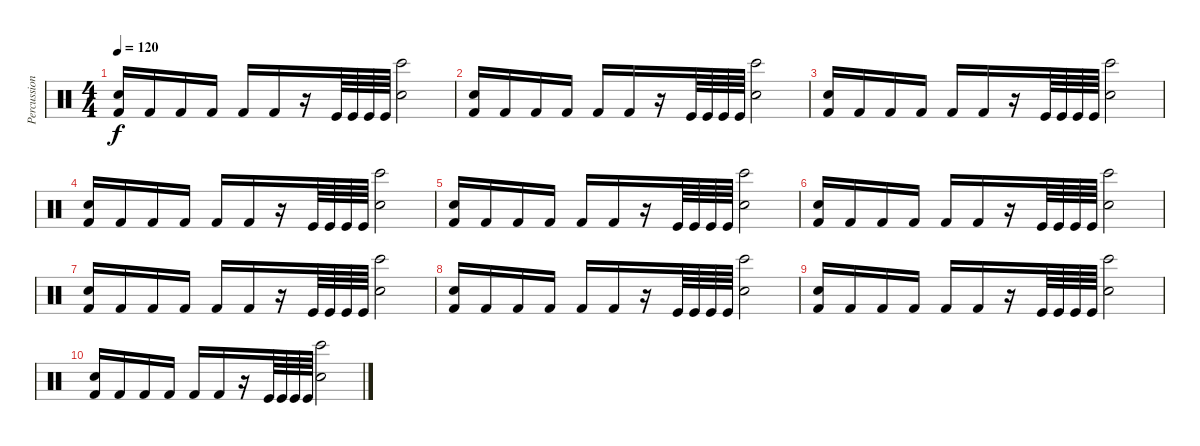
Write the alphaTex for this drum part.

\track ("Percussion" "Percussion") {instrument percussion}
\staff {score}
\articulation defaults
\ts (4 4)
\tempo 120
\clef neutral
\ks c
("Kick (hit) 2" "Snare (hit) 2").16{dy f} "Kick (hit) 2".16 "Kick (hit) 2".16 "Kick (hit) 2".16 "Kick (hit) 2".16 "Kick (hit) 2".16 r.16 "Kick (hit)".64 "Kick (hit)".64 "Kick (hit)".64 "Kick (hit)".64 ("Bongo High (hit)" "Snare (hit) 2").2 |
("Kick (hit) 2" "Snare (hit) 2").16 "Kick (hit) 2".16 "Kick (hit) 2".16 "Kick (hit) 2".16 "Kick (hit) 2".16 "Kick (hit) 2".16 r.16 "Kick (hit)".64 "Kick (hit)".64 "Kick (hit)".64 "Kick (hit)".64 ("Bongo High (hit)" "Snare (hit) 2").2 |
("Kick (hit) 2" "Snare (hit) 2").16 "Kick (hit) 2".16 "Kick (hit) 2".16 "Kick (hit) 2".16 "Kick (hit) 2".16 "Kick (hit) 2".16 r.16 "Kick (hit)".64 "Kick (hit)".64 "Kick (hit)".64 "Kick (hit)".64 ("Bongo High (hit)" "Snare (hit) 2").2 |
("Kick (hit) 2" "Snare (hit) 2").16 "Kick (hit) 2".16 "Kick (hit) 2".16 "Kick (hit) 2".16 "Kick (hit) 2".16 "Kick (hit) 2".16 r.16 "Kick (hit)".64 "Kick (hit)".64 "Kick (hit)".64 "Kick (hit)".64 ("Bongo High (hit)" "Snare (hit) 2").2 |
("Kick (hit) 2" "Snare (hit) 2").16 "Kick (hit) 2".16 "Kick (hit) 2".16 "Kick (hit) 2".16 "Kick (hit) 2".16 "Kick (hit) 2".16 r.16 "Kick (hit)".64 "Kick (hit)".64 "Kick (hit)".64 "Kick (hit)".64 ("Bongo High (hit)" "Snare (hit) 2").2 |
("Kick (hit) 2" "Snare (hit) 2").16 "Kick (hit) 2".16 "Kick (hit) 2".16 "Kick (hit) 2".16 "Kick (hit) 2".16 "Kick (hit) 2".16 r.16 "Kick (hit)".64 "Kick (hit)".64 "Kick (hit)".64 "Kick (hit)".64 ("Bongo High (hit)" "Snare (hit) 2").2 |
("Kick (hit) 2" "Snare (hit) 2").16 "Kick (hit) 2".16 "Kick (hit) 2".16 "Kick (hit) 2".16 "Kick (hit) 2".16 "Kick (hit) 2".16 r.16 "Kick (hit)".64 "Kick (hit)".64 "Kick (hit)".64 "Kick (hit)".64 ("Bongo High (hit)" "Snare (hit) 2").2 |
("Kick (hit) 2" "Snare (hit) 2").16 "Kick (hit) 2".16 "Kick (hit) 2".16 "Kick (hit) 2".16 "Kick (hit) 2".16 "Kick (hit) 2".16 r.16 "Kick (hit)".64 "Kick (hit)".64 "Kick (hit)".64 "Kick (hit)".64 ("Bongo High (hit)" "Snare (hit) 2").2 |
("Kick (hit) 2" "Snare (hit) 2").16 "Kick (hit) 2".16 "Kick (hit) 2".16 "Kick (hit) 2".16 "Kick (hit) 2".16 "Kick (hit) 2".16 r.16 "Kick (hit)".64 "Kick (hit)".64 "Kick (hit)".64 "Kick (hit)".64 ("Bongo High (hit)" "Snare (hit) 2").2 |
("Kick (hit) 2" "Snare (hit) 2").16 "Kick (hit) 2".16 "Kick (hit) 2".16 "Kick (hit) 2".16 "Kick (hit) 2".16 "Kick (hit) 2".16 r.16 "Kick (hit)".64 "Kick (hit)".64 "Kick (hit)".64 "Kick (hit)".64 ("Bongo High (hit)" "Snare (hit) 2").2
